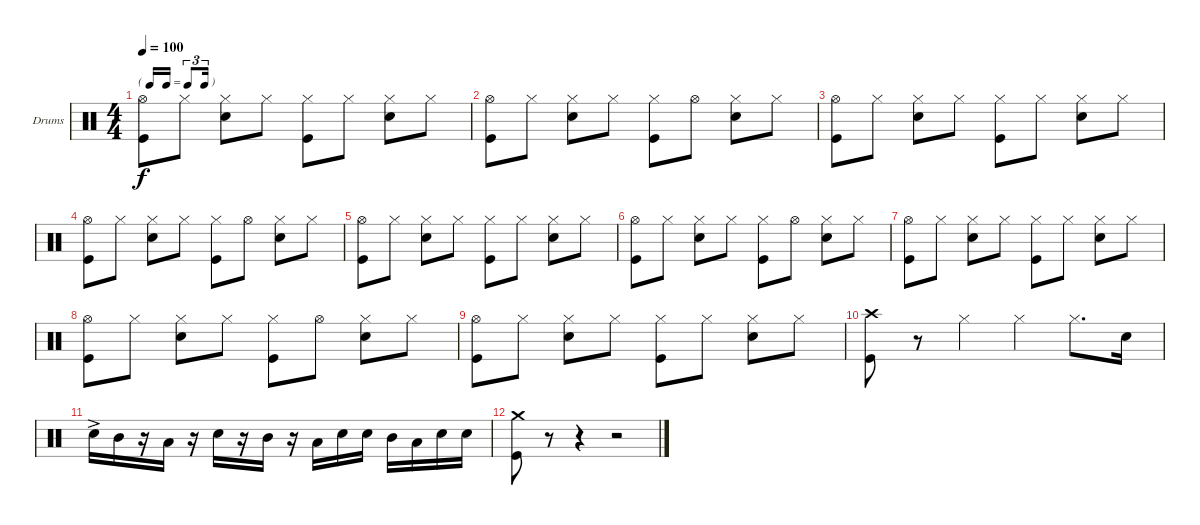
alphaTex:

\bracketExtendMode groupsimilarinstruments
\firstSystemTrackNameOrientation horizontal
\otherSystemsTrackNameOrientation horizontal
\track ("Drumkit" "Drums") {instrument percussion}
\staff {score}
\articulation defaults
\ts (4 4)
\tf triplet16th
\tempo 100
\clef neutral
\ks c
("Kick (hit)" "Hi-Hat (open)").8{dy f} "Hi-Hat (closed)".8 ("Hi-Hat (closed)" "Snare (hit) 2").8 "Hi-Hat (closed)".8 ("Hi-Hat (closed)" "Kick (hit)").8 "Hi-Hat (closed)".8 ("Hi-Hat (closed)" "Snare (hit) 2").8 "Hi-Hat (closed)".8 |
("Hi-Hat (open)" "Kick (hit)").8 "Hi-Hat (closed)".8 ("Hi-Hat (closed)" "Snare (hit) 2").8 "Hi-Hat (closed)".8 ("Hi-Hat (closed)" "Kick (hit)").8 "Hi-Hat (open)".8 ("Hi-Hat (closed)" "Snare (hit) 2").8 "Hi-Hat (closed)".8 |
("Kick (hit)" "Hi-Hat (open)").8 "Hi-Hat (closed)".8 ("Hi-Hat (closed)" "Snare (hit) 2").8 "Hi-Hat (closed)".8 ("Hi-Hat (closed)" "Kick (hit)").8 "Hi-Hat (closed)".8 ("Hi-Hat (closed)" "Snare (hit) 2").8 "Hi-Hat (closed)".8 |
("Hi-Hat (open)" "Kick (hit)").8 "Hi-Hat (closed)".8 ("Hi-Hat (closed)" "Snare (hit) 2").8 "Hi-Hat (closed)".8 ("Hi-Hat (closed)" "Kick (hit)").8 "Hi-Hat (open)".8 ("Hi-Hat (closed)" "Snare (hit) 2").8 "Hi-Hat (closed)".8 |
("Kick (hit)" "Hi-Hat (open)").8 "Hi-Hat (closed)".8 ("Hi-Hat (closed)" "Snare (hit) 2").8 "Hi-Hat (closed)".8 ("Hi-Hat (closed)" "Kick (hit)").8 "Hi-Hat (closed)".8 ("Hi-Hat (closed)" "Snare (hit) 2").8 "Hi-Hat (closed)".8 |
("Hi-Hat (open)" "Kick (hit)").8 "Hi-Hat (closed)".8 ("Hi-Hat (closed)" "Snare (hit) 2").8 "Hi-Hat (closed)".8 ("Hi-Hat (closed)" "Kick (hit)").8 "Hi-Hat (open)".8 ("Hi-Hat (closed)" "Snare (hit) 2").8 "Hi-Hat (closed)".8 |
("Kick (hit)" "Hi-Hat (open)").8 "Hi-Hat (closed)".8 ("Hi-Hat (closed)" "Snare (hit) 2").8 "Hi-Hat (closed)".8 ("Hi-Hat (closed)" "Kick (hit)").8 "Hi-Hat (closed)".8 ("Hi-Hat (closed)" "Snare (hit) 2").8 "Hi-Hat (closed)".8 |
("Hi-Hat (open)" "Kick (hit)").8 "Hi-Hat (closed)".8 ("Hi-Hat (closed)" "Snare (hit) 2").8 "Hi-Hat (closed)".8 ("Hi-Hat (closed)" "Kick (hit)").8 "Hi-Hat (open)".8 ("Hi-Hat (closed)" "Snare (hit) 2").8 "Hi-Hat (closed)".8 |
("Kick (hit)" "Hi-Hat (open)").8 "Hi-Hat (closed)".8 ("Hi-Hat (closed)" "Snare (hit) 2").8 "Hi-Hat (closed)".8 ("Hi-Hat (closed)" "Kick (hit)").8 "Hi-Hat (closed)".8 ("Hi-Hat (closed)" "Snare (hit) 2").8 "Hi-Hat (closed)".8 |
("Kick (hit)" "Crash high (hit)").8 r.8 "Hi-Hat (closed)".4 "Hi-Hat (closed)".4 "Hi-Hat (closed)".8{d} "Snare (hit) 2".16 |
"Snare (hit) 2"{ac}.16 "Mid Tom (hit)".16 r.16 "Low Tom (hit)".16 r.16 "Snare (hit) 2".16 r.16 "Mid Tom (hit)".16 r.16 "Low Tom (hit)".16 "Snare (hit) 2".16 "Snare (hit) 2".16 "Mid Tom (hit)".16 "Low Tom (hit)".16 "Snare (hit) 2".16 "Snare (hit) 2".16 |
("Kick (hit)" "Crash medium (hit)").8 r.8 r.4 r.2
